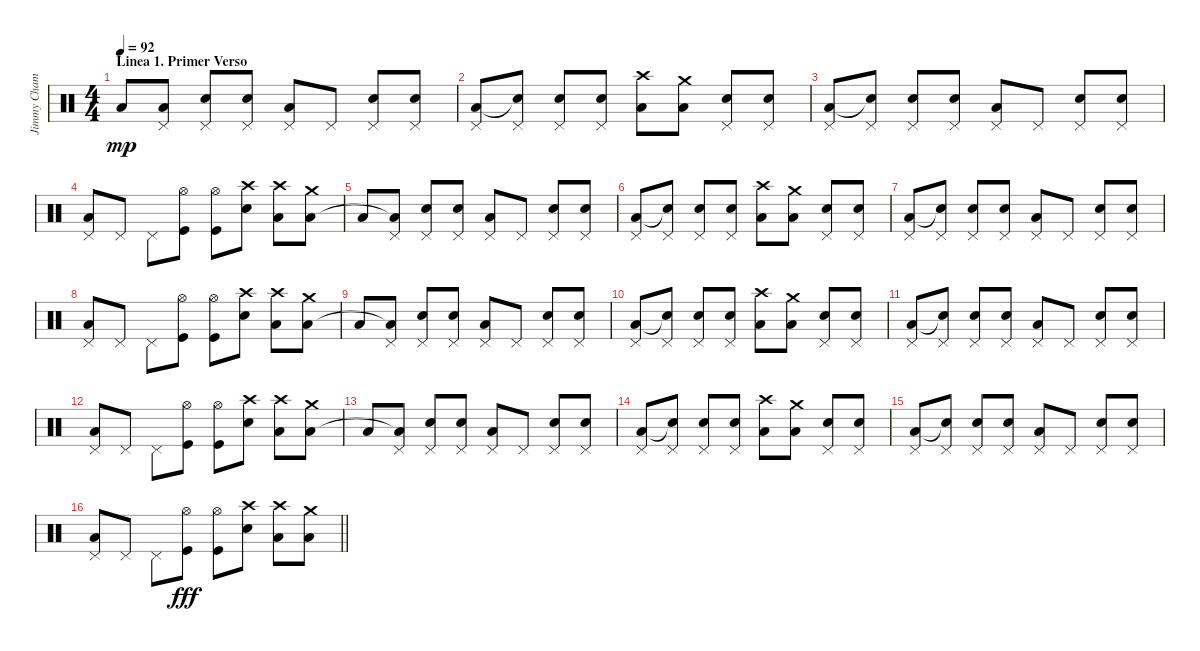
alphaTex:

\track ("Jimmy Chamberlin" "Jimmy Cham") {instrument percussion}
\staff {score}
\articulation defaults
\ts (4 4)
\section ("" "Linea 1. Primer Verso")
\tempo 92
\clef neutral
\ks c "Low Floor Tom (hit)".8{dy mp}
("Pedal Hi-Hat (hit)" "Low Floor Tom (hit)"{t}).8 ("Pedal Hi-Hat (hit)" "Snare (hit) 2").8 ("Pedal Hi-Hat (hit)" "Snare (hit) 2").8 ("Pedal Hi-Hat (hit)" "Low Floor Tom (hit)").8 "Pedal Hi-Hat (hit)".8 ("Pedal Hi-Hat (hit)" "Snare (hit) 2").8 ("Pedal Hi-Hat (hit)" "Snare (hit) 2").8 |
("Pedal Hi-Hat (hit)" "Low Floor Tom (hit)").8 ("Pedal Hi-Hat (hit)" "Snare (hit)"{t}).8 ("Pedal Hi-Hat (hit)" "Snare (hit) 2").8 ("Pedal Hi-Hat (hit)" "Snare (hit) 2").8 ("Crash high (hit)" "Low Tom (hit)").8 ("Crash medium (hit)" "Low Floor Tom (hit)").8 ("Pedal Hi-Hat (hit)" "Snare (hit) 2").8 ("Pedal Hi-Hat (hit)" "Snare (hit) 2").8 |
("Pedal Hi-Hat (hit)" "Low Floor Tom (hit)").8 ("Pedal Hi-Hat (hit)" "Snare (hit)"{t}).8 ("Pedal Hi-Hat (hit)" "Snare (hit) 2").8 ("Pedal Hi-Hat (hit)" "Snare (hit) 2").8 ("Pedal Hi-Hat (hit)" "Low Floor Tom (hit)").8 "Pedal Hi-Hat (hit)".8 ("Pedal Hi-Hat (hit)" "Snare (hit) 2").8 ("Pedal Hi-Hat (hit)" "Snare (hit) 2").8 |
("Pedal Hi-Hat (hit)" "Low Tom (hit)").8 "Pedal Hi-Hat (hit)".8 "Pedal Hi-Hat (hit)".8 ("Hi-Hat (open)" "Kick (hit)").8 ("Hi-Hat (open)" "Kick (hit)").8 ("Crash high (hit)" "Snare (hit) 2").8 ("Crash high (hit)" "Low Tom (hit)").8 ("Crash medium (hit)" "Low Floor Tom (hit)").8 |
"Low Floor Tom (hit)".8 ("Pedal Hi-Hat (hit)" "Low Floor Tom (hit)"{t}).8 ("Pedal Hi-Hat (hit)" "Snare (hit) 2").8 ("Pedal Hi-Hat (hit)" "Snare (hit) 2").8 ("Pedal Hi-Hat (hit)" "Low Floor Tom (hit)").8 "Pedal Hi-Hat (hit)".8 ("Pedal Hi-Hat (hit)" "Snare (hit) 2").8 ("Pedal Hi-Hat (hit)" "Snare (hit) 2").8 |
("Pedal Hi-Hat (hit)" "Low Floor Tom (hit)").8 ("Pedal Hi-Hat (hit)" "Snare (hit)"{t}).8 ("Pedal Hi-Hat (hit)" "Snare (hit) 2").8 ("Pedal Hi-Hat (hit)" "Snare (hit) 2").8 ("Crash high (hit)" "Low Tom (hit)").8 ("Crash medium (hit)" "Low Floor Tom (hit)").8 ("Pedal Hi-Hat (hit)" "Snare (hit) 2").8 ("Pedal Hi-Hat (hit)" "Snare (hit) 2").8 |
("Pedal Hi-Hat (hit)" "Low Floor Tom (hit)").8 ("Pedal Hi-Hat (hit)" "Snare (hit)"{t}).8 ("Pedal Hi-Hat (hit)" "Snare (hit) 2").8 ("Pedal Hi-Hat (hit)" "Snare (hit) 2").8 ("Pedal Hi-Hat (hit)" "Low Floor Tom (hit)").8 "Pedal Hi-Hat (hit)".8 ("Pedal Hi-Hat (hit)" "Snare (hit) 2").8 ("Pedal Hi-Hat (hit)" "Snare (hit) 2").8 |
("Pedal Hi-Hat (hit)" "Low Tom (hit)").8 "Pedal Hi-Hat (hit)".8 "Pedal Hi-Hat (hit)".8 ("Hi-Hat (open)" "Kick (hit)").8 ("Hi-Hat (open)" "Kick (hit)").8 ("Crash high (hit)" "Snare (hit) 2").8 ("Crash high (hit)" "Low Tom (hit)").8 ("Crash medium (hit)" "Low Floor Tom (hit)").8 |
"Low Floor Tom (hit)".8 ("Pedal Hi-Hat (hit)" "Low Floor Tom (hit)"{t}).8 ("Pedal Hi-Hat (hit)" "Snare (hit) 2").8 ("Pedal Hi-Hat (hit)" "Snare (hit) 2").8 ("Pedal Hi-Hat (hit)" "Low Floor Tom (hit)").8 "Pedal Hi-Hat (hit)".8 ("Pedal Hi-Hat (hit)" "Snare (hit) 2").8 ("Pedal Hi-Hat (hit)" "Snare (hit) 2").8 |
("Pedal Hi-Hat (hit)" "Low Floor Tom (hit)").8 ("Pedal Hi-Hat (hit)" "Snare (hit)"{t}).8 ("Pedal Hi-Hat (hit)" "Snare (hit) 2").8 ("Pedal Hi-Hat (hit)" "Snare (hit) 2").8 ("Crash high (hit)" "Low Tom (hit)").8 ("Crash medium (hit)" "Low Floor Tom (hit)").8 ("Pedal Hi-Hat (hit)" "Snare (hit) 2").8 ("Pedal Hi-Hat (hit)" "Snare (hit) 2").8 |
("Pedal Hi-Hat (hit)" "Low Tom (hit)").8 ("Pedal Hi-Hat (hit)" "Snare (hit)"{t}).8 ("Pedal Hi-Hat (hit)" "Snare (hit) 2").8 ("Pedal Hi-Hat (hit)" "Snare (hit) 2").8 ("Pedal Hi-Hat (hit)" "Low Floor Tom (hit)").8 "Pedal Hi-Hat (hit)".8 ("Pedal Hi-Hat (hit)" "Snare (hit) 2").8 ("Pedal Hi-Hat (hit)" "Snare (hit) 2").8 |
("Pedal Hi-Hat (hit)" "Low Tom (hit)").8 "Pedal Hi-Hat (hit)".8 "Pedal Hi-Hat (hit)".8 ("Hi-Hat (open)" "Kick (hit)").8 ("Hi-Hat (open)" "Kick (hit)").8 ("Crash high (hit)" "Snare (hit) 2").8 ("Crash high (hit)" "Low Tom (hit)").8 ("Crash medium (hit)" "Low Floor Tom (hit)").8 |
"Low Floor Tom (hit)".8 ("Pedal Hi-Hat (hit)" "Low Floor Tom (hit)"{t}).8 ("Pedal Hi-Hat (hit)" "Snare (hit) 2").8 ("Pedal Hi-Hat (hit)" "Snare (hit) 2").8 ("Pedal Hi-Hat (hit)" "Low Tom (hit)").8 "Pedal Hi-Hat (hit)".8 ("Pedal Hi-Hat (hit)" "Snare (hit) 2").8 ("Pedal Hi-Hat (hit)" "Snare (hit) 2").8 |
("Pedal Hi-Hat (hit)" "Low Floor Tom (hit)").8 ("Pedal Hi-Hat (hit)" "Snare (hit)"{t}).8 ("Pedal Hi-Hat (hit)" "Snare (hit) 2").8 ("Pedal Hi-Hat (hit)" "Snare (hit) 2").8 ("Crash high (hit)" "Low Tom (hit)").8 ("Crash medium (hit)" "Low Floor Tom (hit)").8 ("Pedal Hi-Hat (hit)" "Snare (hit) 2").8 ("Pedal Hi-Hat (hit)" "Snare (hit) 2").8 |
("Pedal Hi-Hat (hit)" "Low Floor Tom (hit)").8 ("Pedal Hi-Hat (hit)" "Snare (hit)"{t}).8 ("Pedal Hi-Hat (hit)" "Snare (hit) 2").8 ("Pedal Hi-Hat (hit)" "Snare (hit) 2").8 ("Pedal Hi-Hat (hit)" "Low Floor Tom (hit)").8 "Pedal Hi-Hat (hit)".8 ("Pedal Hi-Hat (hit)" "Snare (hit) 2").8 ("Pedal Hi-Hat (hit)" "Snare (hit) 2").8 |
\barLineRight lightlight
("Pedal Hi-Hat (hit)" "Low Tom (hit)").8 "Pedal Hi-Hat (hit)".8 "Pedal Hi-Hat (hit)".8 ("Hi-Hat (open)" "Kick (hit)").8{dy fff} ("Hi-Hat (open)" "Kick (hit)").8 ("Crash high (hit)" "Snare (hit) 2").8 ("Crash high (hit)" "Low Tom (hit)").8 ("Crash medium (hit)" "Low Floor Tom (hit)").8
